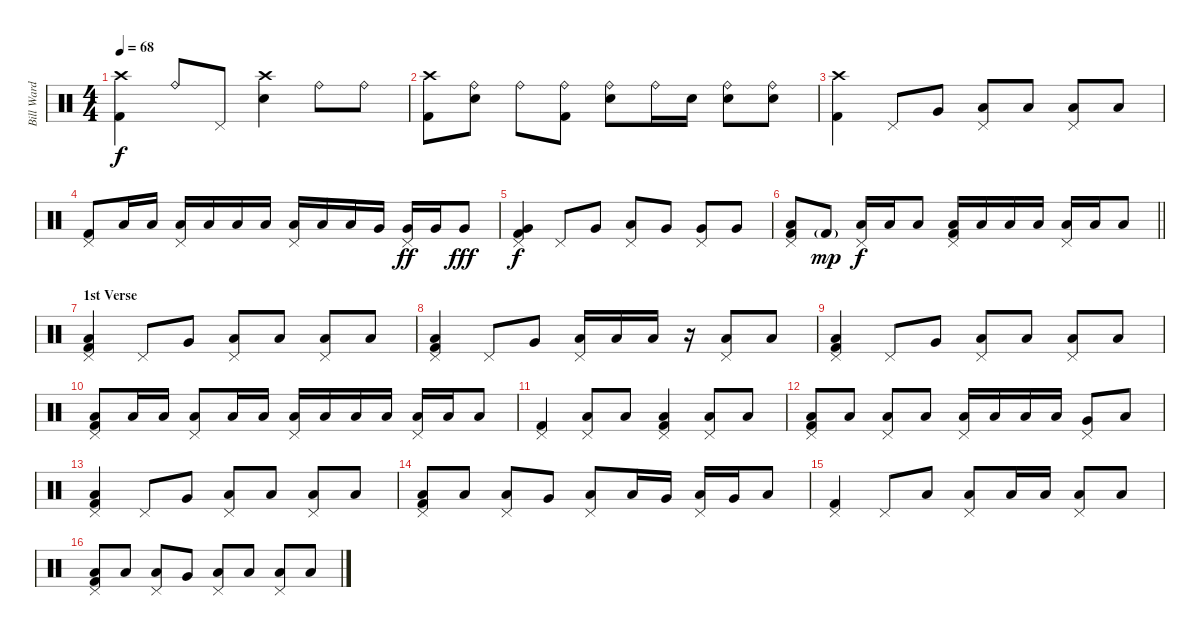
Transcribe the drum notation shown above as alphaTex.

\track ("Bill Ward" "Bill Ward") {instrument percussion}
\staff {score}
\articulation defaults
\ts (4 4)
\tempo 68
\clef neutral
\ks c
("Crash high (hit)" "Kick (hit) 2").4{dy f} "Ride (bell)".8 "Pedal Hi-Hat (hit)".8 ("Crash high (hit)" "Snare (hit) 2").4 "Ride (bell)".8 "Ride (bell)".8 |
("Crash high (hit)" "Kick (hit) 2").8 ("Ride (bell)" "Snare (hit) 2").8 "Ride (bell)".8 ("Ride (bell)" "Kick (hit) 2").8 ("Ride (bell)" "Snare (hit) 2").8 "Ride (bell)".16 "Snare (hit) 2".16 ("Ride (bell)" "Snare (hit) 2").8 ("Ride (bell)" "Snare (hit) 2").8 |
("Crash high (hit)" "Kick (hit) 2").4{volume 8} "Pedal Hi-Hat (hit)".8 "Very Low Tom (hit)".8 ("Pedal Hi-Hat (hit)" "Low Floor Tom (hit)").8 "Low Floor Tom (hit)".8 ("Pedal Hi-Hat (hit)" "Low Floor Tom (hit)").8 "Low Floor Tom (hit)".8 |
("Pedal Hi-Hat (hit)" "Kick (hit) 2").8 "Low Floor Tom (hit)".16 "Low Floor Tom (hit)".16 ("Pedal Hi-Hat (hit)" "Low Floor Tom (hit)").16 "Low Floor Tom (hit)".16 "Low Floor Tom (hit)".16 "Low Floor Tom (hit)".16 ("Pedal Hi-Hat (hit)" "Low Floor Tom (hit)").16 "Low Floor Tom (hit)".16 "Low Floor Tom (hit)".16 "Very Low Tom (hit)".16 ("Pedal Hi-Hat (hit)" "Very Low Tom (hit)").16{dy ff} "Very Low Tom (hit)".16 "Very Low Tom (hit)".8{dy fff} |
("Pedal Hi-Hat (hit)" "Very Low Tom (hit)" "Kick (hit) 2").4{dy f} "Pedal Hi-Hat (hit)".8 "Very Low Tom (hit)".8 ("Pedal Hi-Hat (hit)" "Low Floor Tom (hit)").8 "Very Low Tom (hit)".8 ("Pedal Hi-Hat (hit)" "Very Low Tom (hit)").8 "Very Low Tom (hit)".8 |
\barLineRight lightlight
("Pedal Hi-Hat (hit)" "Low Floor Tom (hit)" "Kick (hit) 2").8 "Kick (hit) 2"{g}.8{dy mp} ("Pedal Hi-Hat (hit)" "Low Floor Tom (hit)").16{dy f} "Low Floor Tom (hit)".16 "Low Floor Tom (hit)".8 ("Pedal Hi-Hat (hit)" "Low Floor Tom (hit)" "Kick (hit) 2").16 "Low Floor Tom (hit)".16 "Low Floor Tom (hit)".16 "Low Floor Tom (hit)".16 ("Pedal Hi-Hat (hit)" "Low Floor Tom (hit)").16 "Low Floor Tom (hit)".16 "Low Floor Tom (hit)".8 |
\section ("" "1st Verse")
("Pedal Hi-Hat (hit)" "Low Floor Tom (hit)" "Kick (hit) 2").4 "Pedal Hi-Hat (hit)".8 "Very Low Tom (hit)".8 ("Pedal Hi-Hat (hit)" "Low Floor Tom (hit)").8 "Low Floor Tom (hit)".8 ("Pedal Hi-Hat (hit)" "Low Floor Tom (hit)").8 "Low Floor Tom (hit)".8 |
("Pedal Hi-Hat (hit)" "Low Floor Tom (hit)" "Kick (hit) 2").4 "Pedal Hi-Hat (hit)".8 "Very Low Tom (hit)".8 ("Pedal Hi-Hat (hit)" "Low Floor Tom (hit)").16 "Low Floor Tom (hit)".16 "Low Floor Tom (hit)".16 r.16 ("Pedal Hi-Hat (hit)" "Low Floor Tom (hit)").8 "Low Floor Tom (hit)".8 |
("Pedal Hi-Hat (hit)" "Low Floor Tom (hit)" "Kick (hit) 2").4 "Pedal Hi-Hat (hit)".8 "Very Low Tom (hit)".8 ("Pedal Hi-Hat (hit)" "Low Floor Tom (hit)").8 "Low Floor Tom (hit)".8 ("Pedal Hi-Hat (hit)" "Low Floor Tom (hit)").8 "Low Floor Tom (hit)".8 |
("Pedal Hi-Hat (hit)" "Low Floor Tom (hit)" "Kick (hit) 2").8 "Low Floor Tom (hit)".16 "Low Floor Tom (hit)".16 ("Pedal Hi-Hat (hit)" "Low Floor Tom (hit)").8 "Low Floor Tom (hit)".16 "Low Floor Tom (hit)".16 ("Pedal Hi-Hat (hit)" "Low Floor Tom (hit)").16 "Low Floor Tom (hit)".16 "Low Floor Tom (hit)".16 "Low Floor Tom (hit)".16 ("Pedal Hi-Hat (hit)" "Low Floor Tom (hit)").16 "Low Floor Tom (hit)".16 "Low Floor Tom (hit)".8 |
("Pedal Hi-Hat (hit)" "Kick (hit) 2").4 ("Pedal Hi-Hat (hit)" "Low Floor Tom (hit)").8 "Low Floor Tom (hit)".8 ("Pedal Hi-Hat (hit)" "Low Floor Tom (hit)" "Kick (hit) 2").4 ("Pedal Hi-Hat (hit)" "Low Floor Tom (hit)").8 "Low Floor Tom (hit)".8 |
("Pedal Hi-Hat (hit)" "Low Floor Tom (hit)" "Kick (hit) 2").8 "Low Floor Tom (hit)".8 ("Pedal Hi-Hat (hit)" "Low Floor Tom (hit)").8 "Low Floor Tom (hit)".8 ("Pedal Hi-Hat (hit)" "Low Floor Tom (hit)").16 "Low Floor Tom (hit)".16 "Low Floor Tom (hit)".16 "Low Floor Tom (hit)".16 ("Pedal Hi-Hat (hit)" "Very Low Tom (hit)").8 "Low Floor Tom (hit)".8 |
("Pedal Hi-Hat (hit)" "Low Floor Tom (hit)" "Kick (hit) 2").4 "Pedal Hi-Hat (hit)".8 "Very Low Tom (hit)".8 ("Pedal Hi-Hat (hit)" "Low Floor Tom (hit)").8 "Low Floor Tom (hit)".8 ("Pedal Hi-Hat (hit)" "Low Floor Tom (hit)").8 "Low Floor Tom (hit)".8 |
("Pedal Hi-Hat (hit)" "Low Floor Tom (hit)" "Kick (hit) 2").8 "Low Floor Tom (hit)".8 ("Pedal Hi-Hat (hit)" "Low Floor Tom (hit)").8 "Very Low Tom (hit)".8 ("Pedal Hi-Hat (hit)" "Low Floor Tom (hit)").8 "Low Floor Tom (hit)".16 "Very Low Tom (hit)".16 ("Pedal Hi-Hat (hit)" "Low Floor Tom (hit)").16 "Very Low Tom (hit)".16 "Low Floor Tom (hit)".8 |
("Pedal Hi-Hat (hit)" "Kick (hit) 2").4 "Pedal Hi-Hat (hit)".8 "Low Floor Tom (hit)".8 ("Pedal Hi-Hat (hit)" "Low Floor Tom (hit)").8 "Low Floor Tom (hit)".16 "Low Floor Tom (hit)".16 ("Pedal Hi-Hat (hit)" "Low Floor Tom (hit)").8 "Low Floor Tom (hit)".8 |
("Pedal Hi-Hat (hit)" "Low Floor Tom (hit)" "Kick (hit) 2").8 "Low Floor Tom (hit)".8 ("Pedal Hi-Hat (hit)" "Low Floor Tom (hit)").8 "Very Low Tom (hit)".8 ("Pedal Hi-Hat (hit)" "Low Floor Tom (hit)").8 "Low Floor Tom (hit)".8 ("Pedal Hi-Hat (hit)" "Low Floor Tom (hit)").8 "Low Floor Tom (hit)".8
